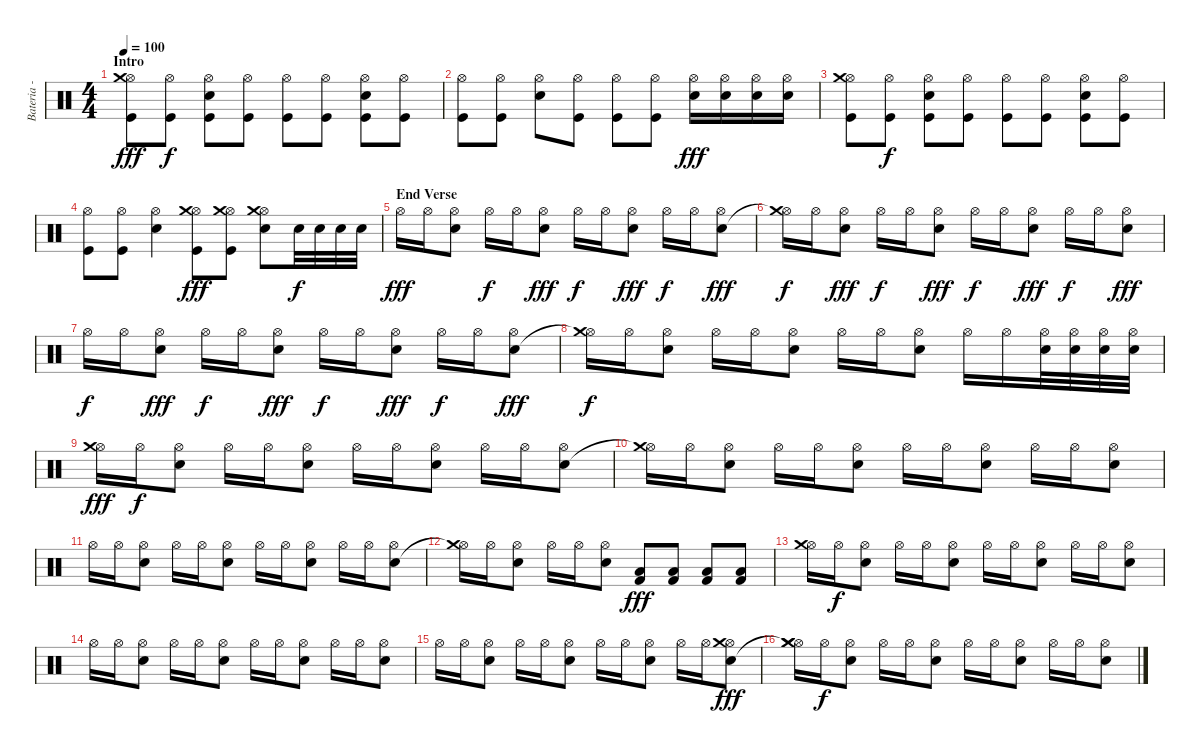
\track ("Bateria - Larzon" "Bateria - ") {instrument percussion}
\staff {score}
\articulation defaults
\ts (4 4)
\section ("" "Intro")
\tempo 100
\clef neutral
\ks c
("Hi-Hat (open)" "Kick (hit)" "Crash medium (hit)").8{dy fff} ("Hi-Hat (open)" "Kick (hit)").8{dy f} ("Hi-Hat (open)" "Kick (hit)" "Snare (hit) 2").8 ("Hi-Hat (open)" "Kick (hit)").8 ("Hi-Hat (open)" "Kick (hit)").8 ("Hi-Hat (open)" "Kick (hit)").8 ("Hi-Hat (open)" "Kick (hit)" "Snare (hit) 2").8 ("Hi-Hat (open)" "Kick (hit)").8 |
("Hi-Hat (open)" "Kick (hit)").8 ("Hi-Hat (open)" "Kick (hit)").8 ("Hi-Hat (open)" "Snare (hit) 2").8 ("Hi-Hat (open)" "Kick (hit)").8 ("Hi-Hat (open)" "Kick (hit)").8 ("Hi-Hat (open)" "Kick (hit)").8 ("Hi-Hat (open)" "Snare (hit) 2").16{dy fff} ("Hi-Hat (open)" "Snare (hit) 2").16 ("Hi-Hat (open)" "Snare (hit) 2").16 ("Hi-Hat (open)" "Snare (hit) 2").16 |
("Hi-Hat (open)" "Kick (hit)" "Crash medium (hit)").8 ("Hi-Hat (open)" "Kick (hit)").8{dy f} ("Hi-Hat (open)" "Kick (hit)" "Snare (hit) 2").8 ("Hi-Hat (open)" "Kick (hit)").8 ("Hi-Hat (open)" "Kick (hit)").8 ("Hi-Hat (open)" "Kick (hit)").8 ("Hi-Hat (open)" "Kick (hit)" "Snare (hit) 2").8 ("Hi-Hat (open)" "Kick (hit)").8 |
("Hi-Hat (open)" "Kick (hit)").8 ("Hi-Hat (open)" "Kick (hit)").8 ("Hi-Hat (open)" "Snare (hit) 2").4 ("Hi-Hat (open)" "Kick (hit)" "Crash medium (hit)").8{dy fff} ("Hi-Hat (open)" "Kick (hit)" "Crash medium (hit)").8 ("Hi-Hat (open)" "Snare (hit) 2" "Crash medium (hit)").8 "Snare (hit) 2".32{dy f} "Snare (hit) 2".32 "Snare (hit) 2".32 "Snare (hit) 2".32 |
\section ("" "End Verse")
"Hi-Hat (open)".16{dy fff} "Hi-Hat (open)".16 ("Hi-Hat (open)" "Snare (hit) 2").8 "Hi-Hat (open)".16{dy f} "Hi-Hat (open)".16 ("Hi-Hat (open)" "Snare (hit) 2").8{dy fff} "Hi-Hat (open)".16{dy f} "Hi-Hat (open)".16 ("Hi-Hat (open)" "Snare (hit) 2").8{dy fff} "Hi-Hat (open)".16{dy f} "Hi-Hat (open)".16 ("Hi-Hat (open)" "Snare (hit) 2").8{dy fff} |
("Hi-Hat (open)" "Crash medium (hit)"{t}).16{dy f} "Hi-Hat (open)".16 ("Hi-Hat (open)" "Snare (hit) 2").8{dy fff} "Hi-Hat (open)".16{dy f} "Hi-Hat (open)".16 ("Hi-Hat (open)" "Snare (hit) 2").8{dy fff} "Hi-Hat (open)".16{dy f} "Hi-Hat (open)".16 ("Hi-Hat (open)" "Snare (hit) 2").8{dy fff} "Hi-Hat (open)".16{dy f} "Hi-Hat (open)".16 ("Hi-Hat (open)" "Snare (hit) 2").8{dy fff} |
"Hi-Hat (open)".16{dy f} "Hi-Hat (open)".16 ("Hi-Hat (open)" "Snare (hit) 2").8{dy fff} "Hi-Hat (open)".16{dy f} "Hi-Hat (open)".16 ("Hi-Hat (open)" "Snare (hit) 2").8{dy fff} "Hi-Hat (open)".16{dy f} "Hi-Hat (open)".16 ("Hi-Hat (open)" "Snare (hit) 2").8{dy fff} "Hi-Hat (open)".16{dy f} "Hi-Hat (open)".16 ("Hi-Hat (open)" "Snare (hit) 2").8{dy fff} |
("Hi-Hat (open)" "Crash medium (hit)"{t}).16{dy f} "Hi-Hat (open)".16 ("Hi-Hat (open)" "Snare (hit) 2").8 "Hi-Hat (open)".16 "Hi-Hat (open)".16 ("Hi-Hat (open)" "Snare (hit) 2").8 "Hi-Hat (open)".16 "Hi-Hat (open)".16 ("Hi-Hat (open)" "Snare (hit) 2").8 "Hi-Hat (open)".16 "Hi-Hat (open)".16 ("Hi-Hat (open)" "Snare (hit) 2").32 ("Hi-Hat (open)" "Snare (hit) 2").32 ("Hi-Hat (open)" "Snare (hit) 2").32 ("Hi-Hat (open)" "Snare (hit) 2").32 |
("Hi-Hat (open)" "Crash medium (hit)").16{dy fff} "Hi-Hat (open)".16{dy f} ("Hi-Hat (open)" "Snare (hit) 2").8 "Hi-Hat (open)".16 "Hi-Hat (open)".16 ("Hi-Hat (open)" "Snare (hit) 2").8 "Hi-Hat (open)".16 "Hi-Hat (open)".16 ("Hi-Hat (open)" "Snare (hit) 2").8 "Hi-Hat (open)".16 "Hi-Hat (open)".16 ("Hi-Hat (open)" "Snare (hit) 2").8 |
("Hi-Hat (open)" "Crash medium (hit)"{t}).16 "Hi-Hat (open)".16 ("Hi-Hat (open)" "Snare (hit) 2").8 "Hi-Hat (open)".16 "Hi-Hat (open)".16 ("Hi-Hat (open)" "Snare (hit) 2").8 "Hi-Hat (open)".16 "Hi-Hat (open)".16 ("Hi-Hat (open)" "Snare (hit) 2").8 "Hi-Hat (open)".16 "Hi-Hat (open)".16 ("Hi-Hat (open)" "Snare (hit) 2").8 |
"Hi-Hat (open)".16 "Hi-Hat (open)".16 ("Hi-Hat (open)" "Snare (hit) 2").8 "Hi-Hat (open)".16 "Hi-Hat (open)".16 ("Hi-Hat (open)" "Snare (hit) 2").8 "Hi-Hat (open)".16 "Hi-Hat (open)".16 ("Hi-Hat (open)" "Snare (hit) 2").8 "Hi-Hat (open)".16 "Hi-Hat (open)".16 ("Hi-Hat (open)" "Snare (hit) 2").8 |
("Hi-Hat (open)" "Crash medium (hit)"{t}).16 "Hi-Hat (open)".16 ("Hi-Hat (open)" "Snare (hit) 2").8 "Hi-Hat (open)".16 "Hi-Hat (open)".16 ("Hi-Hat (open)" "Snare (hit) 2").8 ("Low Floor Tom (hit)" "Kick (hit) 2").8{dy fff volume 16} ("Low Floor Tom (hit)" "Kick (hit) 2").8 ("Low Floor Tom (hit)" "Kick (hit) 2").8 ("Low Floor Tom (hit)" "Kick (hit) 2").8 |
("Hi-Hat (open)" "Crash medium (hit)").16{volume 14} "Hi-Hat (open)".16{dy f} ("Hi-Hat (open)" "Snare (hit) 2").8 "Hi-Hat (open)".16 "Hi-Hat (open)".16 ("Hi-Hat (open)" "Snare (hit) 2").8 "Hi-Hat (open)".16 "Hi-Hat (open)".16 ("Hi-Hat (open)" "Snare (hit) 2").8 "Hi-Hat (open)".16 "Hi-Hat (open)".16 ("Hi-Hat (open)" "Snare (hit) 2").8 |
"Hi-Hat (open)".16 "Hi-Hat (open)".16 ("Hi-Hat (open)" "Snare (hit) 2").8 "Hi-Hat (open)".16 "Hi-Hat (open)".16 ("Hi-Hat (open)" "Snare (hit) 2").8 "Hi-Hat (open)".16 "Hi-Hat (open)".16 ("Hi-Hat (open)" "Snare (hit) 2").8 "Hi-Hat (open)".16 "Hi-Hat (open)".16 ("Hi-Hat (open)" "Snare (hit) 2").8 |
"Hi-Hat (open)".16 "Hi-Hat (open)".16 ("Hi-Hat (open)" "Snare (hit) 2").8 "Hi-Hat (open)".16 "Hi-Hat (open)".16 ("Hi-Hat (open)" "Snare (hit) 2").8 "Hi-Hat (open)".16 "Hi-Hat (open)".16 ("Hi-Hat (open)" "Snare (hit) 2").8 "Hi-Hat (open)".16 "Hi-Hat (open)".16 ("Hi-Hat (open)" "Snare (hit) 2" "Crash medium (hit)").8{dy fff} |
("Hi-Hat (open)" "Crash medium (hit)"{t} "Crash medium (hit)").16 "Hi-Hat (open)".16{dy f} ("Hi-Hat (open)" "Snare (hit) 2").8 "Hi-Hat (open)".16 "Hi-Hat (open)".16 ("Hi-Hat (open)" "Snare (hit) 2").8 "Hi-Hat (open)".16 "Hi-Hat (open)".16 ("Hi-Hat (open)" "Snare (hit) 2").8 "Hi-Hat (open)".16 "Hi-Hat (open)".16 ("Hi-Hat (open)" "Snare (hit) 2").8
